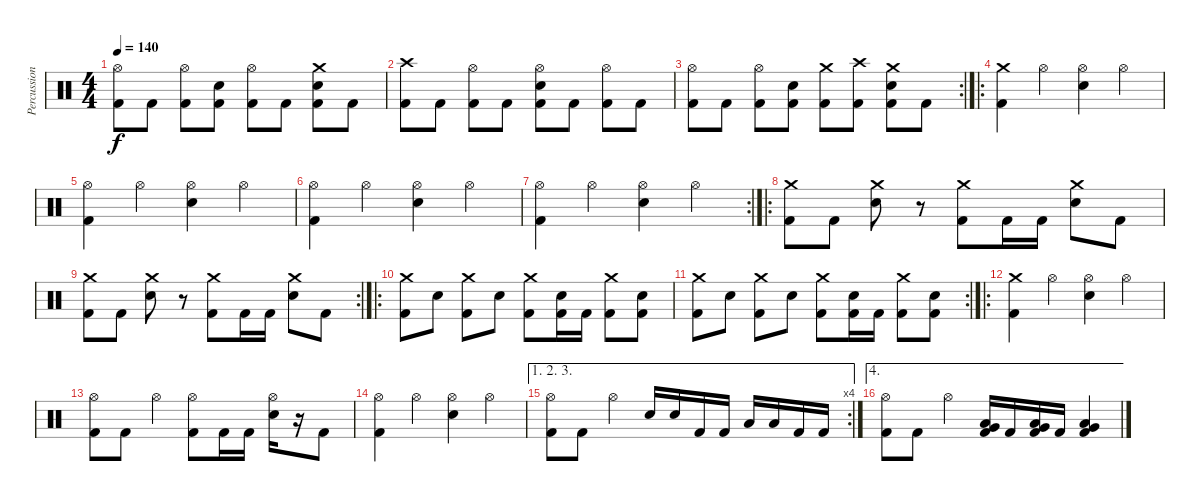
\track ("Percussion" "Percussion") {instrument percussion}
\staff {score}
\articulation defaults
\ts (4 4)
\tempo 140
\clef neutral
\ks c
("Hi-Hat (open)" "Kick (hit) 2").8{dy f} "Kick (hit) 2".8 ("Hi-Hat (open)" "Kick (hit) 2").8 ("Electric Snare (hit)" "Kick (hit) 2").8 ("Hi-Hat (open)" "Kick (hit) 2").8 "Kick (hit) 2".8 ("Crash medium (hit)" "Electric Snare (hit)" "Kick (hit) 2").8 "Kick (hit) 2".8 |
("Crash high (hit)" "Kick (hit) 2").8 "Kick (hit) 2".8 ("Hi-Hat (open)" "Kick (hit) 2").8 "Kick (hit) 2".8 ("Hi-Hat (open)" "Electric Snare (hit)" "Kick (hit) 2").8 "Kick (hit) 2".8 ("Hi-Hat (open)" "Kick (hit) 2").8 "Kick (hit) 2".8 |
\rc 2
("Hi-Hat (open)" "Kick (hit) 2").8 "Kick (hit) 2".8 ("Hi-Hat (open)" "Kick (hit) 2").8 ("Electric Snare (hit)" "Kick (hit) 2").8 ("Crash medium (hit)" "Kick (hit) 2").8 ("Crash high (hit)" "Kick (hit) 2").8 ("Crash medium (hit)" "Electric Snare (hit)" "Kick (hit) 2").8 "Kick (hit) 2".8 |
\ro
("Crash medium (hit)" "Kick (hit) 2").4 "Hi-Hat (open)".4 ("Hi-Hat (open)" "Electric Snare (hit)").4 "Hi-Hat (open)".4 |
("Hi-Hat (open)" "Kick (hit) 2").4 "Hi-Hat (open)".4 ("Hi-Hat (open)" "Electric Snare (hit)").4 "Hi-Hat (open)".4 |
("Hi-Hat (open)" "Kick (hit) 2").4 "Hi-Hat (open)".4 ("Hi-Hat (open)" "Electric Snare (hit)").4 "Hi-Hat (open)".4 |
\rc 2
("Hi-Hat (open)" "Kick (hit) 2").4 "Hi-Hat (open)".4 ("Hi-Hat (open)" "Electric Snare (hit)").4 "Hi-Hat (open)".4 |
\ro
("Crash medium (hit)" "Kick (hit) 2").8 "Kick (hit) 2".8 ("Crash medium (hit)" "Electric Snare (hit)").8 r.8 ("Crash medium (hit)" "Kick (hit) 2").8 "Kick (hit) 2".16 "Kick (hit) 2".16 ("Crash medium (hit)" "Electric Snare (hit)").8 "Kick (hit) 2".8 |
\rc 2
("Crash medium (hit)" "Kick (hit) 2").8 "Kick (hit) 2".8 ("Crash medium (hit)" "Electric Snare (hit)").8 r.8 ("Crash medium (hit)" "Kick (hit) 2").8 "Kick (hit) 2".16 "Kick (hit) 2".16 ("Crash medium (hit)" "Electric Snare (hit)").8 "Kick (hit) 2".8 |
\ro
("Crash medium (hit)" "Kick (hit) 2").8 "Electric Snare (hit)".8 ("Crash medium (hit)" "Kick (hit) 2").8 "Electric Snare (hit)".8 ("Crash medium (hit)" "Kick (hit) 2").8 ("Electric Snare (hit)" "Kick (hit) 2").16 "Kick (hit) 2".16 ("Crash medium (hit)" "Kick (hit) 2").8 ("Electric Snare (hit)" "Kick (hit) 2").8 |
\rc 2
("Crash medium (hit)" "Kick (hit) 2").8 "Electric Snare (hit)".8 ("Crash medium (hit)" "Kick (hit) 2").8 "Electric Snare (hit)".8 ("Crash medium (hit)" "Kick (hit) 2").8 ("Electric Snare (hit)" "Kick (hit) 2").16 "Kick (hit) 2".16 ("Crash medium (hit)" "Kick (hit) 2").8 ("Electric Snare (hit)" "Kick (hit) 2").8 |
\ro
("Crash medium (hit)" "Kick (hit) 2").4 "Hi-Hat (open)".4 ("Hi-Hat (open)" "Electric Snare (hit)").4 "Hi-Hat (open)".4 |
("Hi-Hat (open)" "Kick (hit) 2").8 "Kick (hit) 2".8 "Hi-Hat (open)".4 ("Hi-Hat (open)" "Kick (hit) 2").8 "Kick (hit) 2".16 "Kick (hit) 2".16 ("Hi-Hat (open)" "Electric Snare (hit)").16 r.16 "Kick (hit) 2".8 |
("Hi-Hat (open)" "Kick (hit) 2").4 "Hi-Hat (open)".4 ("Hi-Hat (open)" "Electric Snare (hit)").4 "Hi-Hat (open)".4 |
\ae (1 2 3)
\rc 4
("Hi-Hat (open)" "Kick (hit) 2").8 "Kick (hit) 2".8 "Hi-Hat (open)".4 "Electric Snare (hit)".16 "Electric Snare (hit)".16 "Kick (hit) 2".16 "Kick (hit) 2".16 "Low Tom (hit)".16 "Low Tom (hit)".16 "Kick (hit) 2".16 "Kick (hit) 2".16 |
\ae 4
("Hi-Hat (open)" "Kick (hit) 2").8 "Kick (hit) 2".8 "Hi-Hat (open)".4 ("Low Tom (hit)" "Very Low Tom (hit)" "Kick (hit) 2").16 "Kick (hit) 2".16 ("Low Tom (hit)" "Very Low Tom (hit)" "Kick (hit) 2").16 "Kick (hit) 2".16 ("Low Tom (hit)" "Very Low Tom (hit)" "Kick (hit) 2").4
